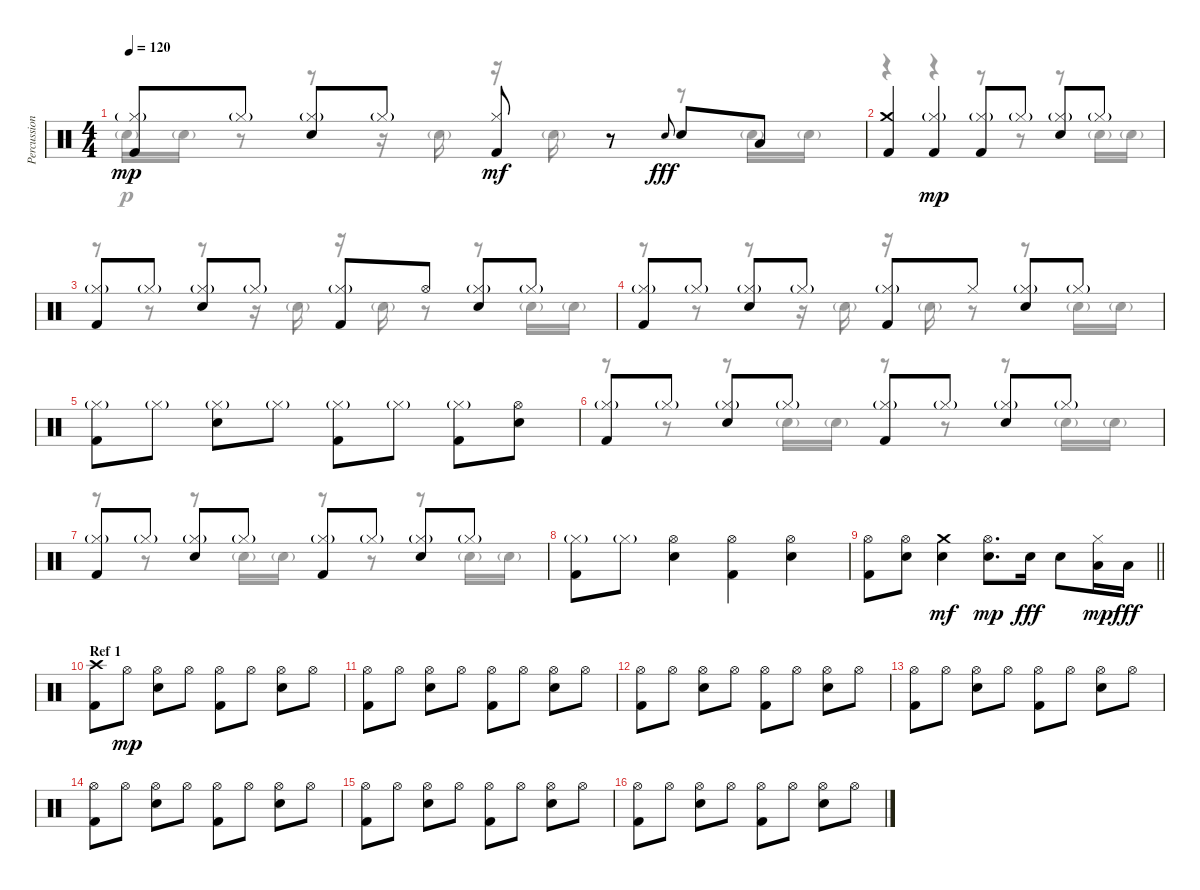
\track ("Percussions" "Percussion") {instrument percussion}
\staff {score}
\articulation defaults
\voice
\ts (4 4)
\tempo 120
\clef neutral
\ks c
("Kick (hit) 2" "Hi-Hat (closed)"{g}).8{dy mp} "Hi-Hat (closed)"{g}.8 ("Electric Snare (hit)" "Hi-Hat (closed)"{g}).8 "Hi-Hat (closed)"{g}.8 ("Kick (hit) 2" "Hi-Hat (closed)").8{dy mf} r.8 "Electric Snare (hit)".8{gr onbeat dy fff} "Electric Snare (hit)".8 "Low Tom (hit)".8 |
("Kick (hit) 2" "Crash medium (hit)").4 ("Kick (hit) 2" "Hi-Hat (closed)"{g}).4{dy mp} ("Kick (hit) 2" "Hi-Hat (closed)"{g}).8 "Hi-Hat (closed)"{g}.8 ("Electric Snare (hit)" "Hi-Hat (closed)"{g}).8 "Hi-Hat (closed)"{g}.8 |
("Kick (hit) 2" "Hi-Hat (closed)"{g}).8 "Hi-Hat (closed)"{g}.8 ("Electric Snare (hit)" "Hi-Hat (closed)"{g}).8 "Hi-Hat (closed)"{g}.8 ("Kick (hit) 2" "Hi-Hat (closed)"{g}).8 "Hi-Hat (open)".8 ("Electric Snare (hit)" "Hi-Hat (closed)"{g}).8 "Hi-Hat (closed)"{g}.8 |
("Kick (hit) 2" "Hi-Hat (closed)"{g}).8 "Hi-Hat (closed)"{g}.8 ("Electric Snare (hit)" "Hi-Hat (closed)"{g}).8 "Hi-Hat (closed)"{g}.8 ("Kick (hit) 2" "Hi-Hat (closed)"{g}).8 "Hi-Hat (closed)".8 ("Electric Snare (hit)" "Hi-Hat (closed)"{g}).8 "Hi-Hat (closed)"{g}.8 |
("Kick (hit) 2" "Hi-Hat (closed)"{g}).8 "Hi-Hat (closed)"{g}.8 ("Electric Snare (hit)" "Hi-Hat (closed)"{g}).8 "Hi-Hat (closed)"{g}.8 ("Kick (hit) 2" "Hi-Hat (closed)"{g}).8 "Hi-Hat (closed)"{g}.8 ("Kick (hit) 2" "Hi-Hat (closed)"{g}).8 ("Electric Snare (hit)" "Hi-Hat (open)").8 |
("Kick (hit) 2" "Hi-Hat (closed)"{g}).8 "Hi-Hat (closed)"{g}.8 ("Electric Snare (hit)" "Hi-Hat (closed)"{g}).8 "Hi-Hat (closed)"{g}.8 ("Kick (hit) 2" "Hi-Hat (closed)"{g}).8 "Hi-Hat (closed)"{g}.8 ("Electric Snare (hit)" "Hi-Hat (closed)"{g}).8 "Hi-Hat (closed)"{g}.8 |
("Kick (hit) 2" "Hi-Hat (closed)"{g}).8 "Hi-Hat (closed)"{g}.8 ("Electric Snare (hit)" "Hi-Hat (closed)"{g}).8 "Hi-Hat (closed)"{g}.8 ("Kick (hit) 2" "Hi-Hat (closed)"{g}).8 "Hi-Hat (closed)"{g}.8 ("Electric Snare (hit)" "Hi-Hat (closed)"{g}).8 "Hi-Hat (closed)"{g}.8 |
("Kick (hit) 2" "Hi-Hat (closed)"{g}).8 "Hi-Hat (closed)"{g}.8 ("Electric Snare (hit)" "Hi-Hat (open)").4 ("Kick (hit) 2" "Hi-Hat (open)").4 ("Electric Snare (hit)" "Hi-Hat (open)").4 |
\barLineRight lightlight
("Kick (hit) 2" "Hi-Hat (open)").8 ("Electric Snare (hit)" "Hi-Hat (open)").8 ("Electric Snare (hit)" "Crash medium (hit)").4{dy mf} ("Electric Snare (hit)" "Hi-Hat (open)").8{d dy mp} "Electric Snare (hit)".16{dy fff} "Electric Snare (hit)".8 ("Low Tom (hit)" "Hi-Hat (closed)").16{dy mp} "Low Tom (hit)".16{dy fff} |
\section ("" "Ref 1")
("Kick (hit) 2" "Crash high (hit)").8 "Hi-Hat (open)".8{dy mp} ("Electric Snare (hit)" "Hi-Hat (open)").8 "Hi-Hat (open)".8 ("Kick (hit) 2" "Hi-Hat (open)").8 "Hi-Hat (open)".8 ("Electric Snare (hit)" "Hi-Hat (open)").8 "Hi-Hat (open)".8 |
("Kick (hit) 2" "Hi-Hat (open)").8 "Hi-Hat (open)".8 ("Electric Snare (hit)" "Hi-Hat (open)").8 "Hi-Hat (open)".8 ("Kick (hit) 2" "Hi-Hat (open)").8 "Hi-Hat (open)".8 ("Electric Snare (hit)" "Hi-Hat (open)").8 "Hi-Hat (open)".8 |
("Kick (hit) 2" "Hi-Hat (open)").8 "Hi-Hat (open)".8 ("Electric Snare (hit)" "Hi-Hat (open)").8 "Hi-Hat (open)".8 ("Kick (hit) 2" "Hi-Hat (open)").8 "Hi-Hat (open)".8 ("Electric Snare (hit)" "Hi-Hat (open)").8 "Hi-Hat (open)".8 |
("Kick (hit) 2" "Hi-Hat (open)").8 "Hi-Hat (open)".8 ("Electric Snare (hit)" "Hi-Hat (open)").8 "Hi-Hat (open)".8 ("Kick (hit) 2" "Hi-Hat (open)").8 "Hi-Hat (open)".8 ("Electric Snare (hit)" "Hi-Hat (open)").8 "Hi-Hat (open)".8 |
("Kick (hit) 2" "Hi-Hat (open)").8 "Hi-Hat (open)".8 ("Electric Snare (hit)" "Hi-Hat (open)").8 "Hi-Hat (open)".8 ("Kick (hit) 2" "Hi-Hat (open)").8 "Hi-Hat (open)".8 ("Electric Snare (hit)" "Hi-Hat (open)").8 "Hi-Hat (open)".8 |
("Kick (hit) 2" "Hi-Hat (open)").8 "Hi-Hat (open)".8 ("Electric Snare (hit)" "Hi-Hat (open)").8 "Hi-Hat (open)".8 ("Kick (hit) 2" "Hi-Hat (open)").8 "Hi-Hat (open)".8 ("Electric Snare (hit)" "Hi-Hat (open)").8 "Hi-Hat (open)".8 |
("Kick (hit) 2" "Hi-Hat (open)").8 "Hi-Hat (open)".8 ("Electric Snare (hit)" "Hi-Hat (open)").8 "Hi-Hat (open)".8 ("Kick (hit) 2" "Hi-Hat (open)").8 "Hi-Hat (open)".8 ("Electric Snare (hit)" "Hi-Hat (open)").8 "Hi-Hat (open)".8
\voice
\clef neutral
\ottava regular
\simile none
\ks c "Electric Snare (hit)"{g}.16{dy p} "Electric Snare (hit)"{g}.16
r.8 r.8 r.16 "Electric Snare (hit)"{g}.16 r.16 "Electric Snare (hit)"{g}.16 r.8 r.8 "Electric Snare (hit)"{g}.16 "Electric Snare (hit)"{g}.16 |
r.4 r.4 r.8 r.8 r.8 "Electric Snare (hit)"{g}.16 "Electric Snare (hit)"{g}.16 |
r.8 r.8 r.8 r.16 "Electric Snare (hit)"{g}.16 r.16 "Electric Snare (hit)"{g}.16 r.8 r.8 "Electric Snare (hit)"{g}.16 "Electric Snare (hit)"{g}.16 |
r.8 r.8 r.8 r.16 "Electric Snare (hit)"{g}.16 r.16 "Electric Snare (hit)"{g}.16 r.8 r.8 "Electric Snare (hit)"{g}.16 "Electric Snare (hit)"{g}.16 |
|
r.8 r.8 r.8 "Electric Snare (hit)"{g}.16 "Electric Snare (hit)"{g}.16 r.8 r.8 r.8 "Electric Snare (hit)"{g}.16 "Electric Snare (hit)"{g}.16 |
r.8 r.8 r.8 "Electric Snare (hit)"{g}.16 "Electric Snare (hit)"{g}.16 r.8 r.8 r.8 "Electric Snare (hit)"{g}.16 "Electric Snare (hit)"{g}.16 |
|
\barLineRight lightlight
|
|
|
|
|
|
|
